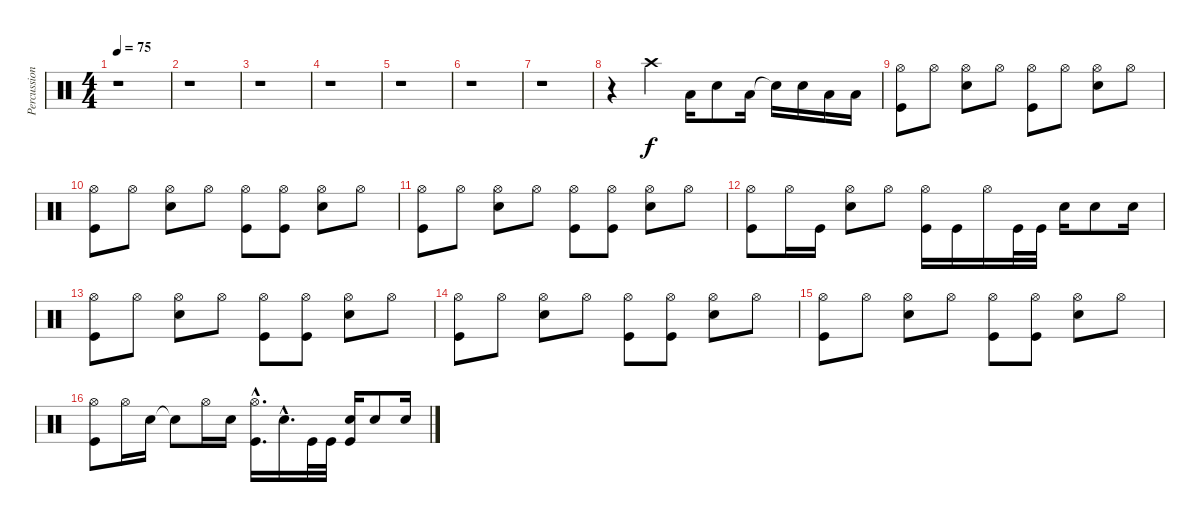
\track ("Percussion" "Percussion") {instrument percussion}
\staff {score}
\articulation defaults
\ts (4 4)
\tempo 75
\clef neutral
\ks c
r.1{dy f} |
r.1 |
r.1 |
r.1 |
r.1 |
r.1 |
r.1 |
r.4 "Crash high (hit)".4 "Low Tom (hit)".16 "Snare (hit) 2".8 "Low Tom (hit)".16 "Snare (hit)"{t}.16 "Snare (hit) 2".16 "Low Tom (hit)".16 "Low Tom (hit)".16 |
("Hi-Hat (open)" "Kick (hit)").8 "Hi-Hat (open)".8 ("Hi-Hat (open)" "Snare (hit) 2").8 "Hi-Hat (open)".8 ("Hi-Hat (open)" "Kick (hit)").8 "Hi-Hat (open)".8 ("Hi-Hat (open)" "Snare (hit) 2").8 "Hi-Hat (open)".8 |
("Hi-Hat (open)" "Kick (hit)").8 "Hi-Hat (open)".8 ("Hi-Hat (open)" "Snare (hit) 2").8 "Hi-Hat (open)".8 ("Hi-Hat (open)" "Kick (hit)").8 ("Hi-Hat (open)" "Kick (hit)").8 ("Hi-Hat (open)" "Snare (hit) 2").8 "Hi-Hat (open)".8 |
("Hi-Hat (open)" "Kick (hit)").8 "Hi-Hat (open)".8 ("Hi-Hat (open)" "Snare (hit) 2").8 "Hi-Hat (open)".8 ("Hi-Hat (open)" "Kick (hit)").8 ("Hi-Hat (open)" "Kick (hit)").8 ("Hi-Hat (open)" "Snare (hit) 2").8 "Hi-Hat (open)".8 |
("Hi-Hat (open)" "Kick (hit)").8 "Hi-Hat (open)".16 "Kick (hit)".16 ("Hi-Hat (open)" "Snare (hit) 2").8 "Hi-Hat (open)".8 ("Hi-Hat (open)" "Kick (hit)").16 "Kick (hit)".16 "Hi-Hat (open)".16 "Kick (hit)".32 "Kick (hit)".32 "Snare (hit) 2".16 "Snare (hit) 2".8 "Snare (hit) 2".16 |
("Hi-Hat (open)" "Kick (hit)").8 "Hi-Hat (open)".8 ("Hi-Hat (open)" "Snare (hit) 2").8 "Hi-Hat (open)".8 ("Hi-Hat (open)" "Kick (hit)").8 ("Hi-Hat (open)" "Kick (hit)").8 ("Hi-Hat (open)" "Snare (hit) 2").8 "Hi-Hat (open)".8 |
("Hi-Hat (open)" "Kick (hit)").8 "Hi-Hat (open)".8 ("Hi-Hat (open)" "Snare (hit) 2").8 "Hi-Hat (open)".8 ("Hi-Hat (open)" "Kick (hit)").8 ("Hi-Hat (open)" "Kick (hit)").8 ("Hi-Hat (open)" "Snare (hit) 2").8 "Hi-Hat (open)".8 |
("Hi-Hat (open)" "Kick (hit)").8 "Hi-Hat (open)".8 ("Hi-Hat (open)" "Snare (hit) 2").8 "Hi-Hat (open)".8 ("Hi-Hat (open)" "Kick (hit)").8 ("Hi-Hat (open)" "Kick (hit)").8 ("Hi-Hat (open)" "Snare (hit) 2").8 "Hi-Hat (open)".8 |
("Hi-Hat (open)" "Kick (hit)").8 "Hi-Hat (open)".16 "Snare (hit) 2".16 "Snare (hit)"{t}.8 "Hi-Hat (open)".16 "Snare (hit) 2".16 ("Hi-Hat (open)"{hac} "Kick (hit)"{hac}).16{d} "Snare (hit) 2"{hac}.16{d} "Kick (hit)".32 "Kick (hit)".32 ("Snare (hit) 2" "Kick (hit)").16 "Snare (hit) 2".8 "Snare (hit) 2".16
